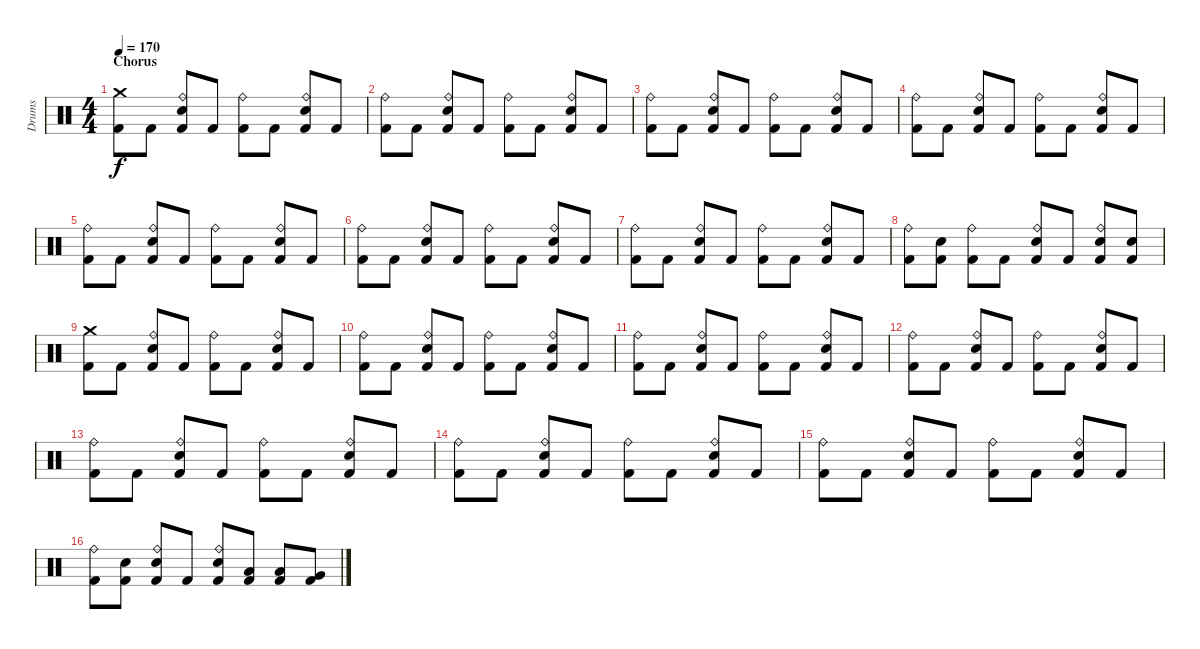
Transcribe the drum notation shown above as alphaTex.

\track ("Drums" "Drums") {instrument percussion}
\staff {score}
\articulation defaults
\ts (4 4)
\section ("" "Chorus")
\tempo 170
\clef neutral
\ks c
("Crash medium (hit)" "Kick (hit) 2").8{dy f} "Kick (hit) 2".8 ("Ride (bell)" "Electric Snare (hit)" "Kick (hit) 2").8 "Kick (hit) 2".8 ("Ride (bell)" "Kick (hit) 2").8 "Kick (hit) 2".8 ("Ride (bell)" "Electric Snare (hit)" "Kick (hit) 2").8 "Kick (hit) 2".8 |
("Ride (bell)" "Kick (hit) 2").8 "Kick (hit) 2".8 ("Ride (bell)" "Electric Snare (hit)" "Kick (hit) 2").8 "Kick (hit) 2".8 ("Ride (bell)" "Kick (hit) 2").8 "Kick (hit) 2".8 ("Ride (bell)" "Electric Snare (hit)" "Kick (hit) 2").8 "Kick (hit) 2".8 |
("Ride (bell)" "Kick (hit) 2").8 "Kick (hit) 2".8 ("Ride (bell)" "Electric Snare (hit)" "Kick (hit) 2").8 "Kick (hit) 2".8 ("Ride (bell)" "Kick (hit) 2").8 "Kick (hit) 2".8 ("Ride (bell)" "Electric Snare (hit)" "Kick (hit) 2").8 "Kick (hit) 2".8 |
("Ride (bell)" "Kick (hit) 2").8 "Kick (hit) 2".8 ("Ride (bell)" "Electric Snare (hit)" "Kick (hit) 2").8 "Kick (hit) 2".8 ("Ride (bell)" "Kick (hit) 2").8 "Kick (hit) 2".8 ("Ride (bell)" "Electric Snare (hit)" "Kick (hit) 2").8 "Kick (hit) 2".8 |
("Ride (bell)" "Kick (hit) 2").8 "Kick (hit) 2".8 ("Ride (bell)" "Electric Snare (hit)" "Kick (hit) 2").8 "Kick (hit) 2".8 ("Ride (bell)" "Kick (hit) 2").8 "Kick (hit) 2".8 ("Ride (bell)" "Electric Snare (hit)" "Kick (hit) 2").8 "Kick (hit) 2".8 |
("Ride (bell)" "Kick (hit) 2").8 "Kick (hit) 2".8 ("Ride (bell)" "Electric Snare (hit)" "Kick (hit) 2").8 "Kick (hit) 2".8 ("Ride (bell)" "Kick (hit) 2").8 "Kick (hit) 2".8 ("Ride (bell)" "Electric Snare (hit)" "Kick (hit) 2").8 "Kick (hit) 2".8 |
("Ride (bell)" "Kick (hit) 2").8 "Kick (hit) 2".8 ("Ride (bell)" "Electric Snare (hit)" "Kick (hit) 2").8 "Kick (hit) 2".8 ("Ride (bell)" "Kick (hit) 2").8 "Kick (hit) 2".8 ("Ride (bell)" "Electric Snare (hit)" "Kick (hit) 2").8 "Kick (hit) 2".8 |
("Ride (bell)" "Kick (hit) 2").8 ("Electric Snare (hit)" "Kick (hit) 2").8 ("Ride (bell)" "Kick (hit) 2").8 "Kick (hit) 2".8 ("Ride (bell)" "Electric Snare (hit)" "Kick (hit) 2").8 "Kick (hit) 2".8 ("Ride (bell)" "Electric Snare (hit)" "Kick (hit) 2").8 ("Electric Snare (hit)" "Kick (hit) 2").8 |
("Crash medium (hit)" "Kick (hit) 2").8 "Kick (hit) 2".8 ("Ride (bell)" "Electric Snare (hit)" "Kick (hit) 2").8 "Kick (hit) 2".8 ("Ride (bell)" "Kick (hit) 2").8 "Kick (hit) 2".8 ("Ride (bell)" "Electric Snare (hit)" "Kick (hit) 2").8 "Kick (hit) 2".8 |
("Ride (bell)" "Kick (hit) 2").8 "Kick (hit) 2".8 ("Ride (bell)" "Electric Snare (hit)" "Kick (hit) 2").8 "Kick (hit) 2".8 ("Ride (bell)" "Kick (hit) 2").8 "Kick (hit) 2".8 ("Ride (bell)" "Electric Snare (hit)" "Kick (hit) 2").8 "Kick (hit) 2".8 |
("Ride (bell)" "Kick (hit) 2").8 "Kick (hit) 2".8 ("Ride (bell)" "Electric Snare (hit)" "Kick (hit) 2").8 "Kick (hit) 2".8 ("Ride (bell)" "Kick (hit) 2").8 "Kick (hit) 2".8 ("Ride (bell)" "Electric Snare (hit)" "Kick (hit) 2").8 "Kick (hit) 2".8 |
("Ride (bell)" "Kick (hit) 2").8 "Kick (hit) 2".8 ("Ride (bell)" "Electric Snare (hit)" "Kick (hit) 2").8 "Kick (hit) 2".8 ("Ride (bell)" "Kick (hit) 2").8 "Kick (hit) 2".8 ("Ride (bell)" "Electric Snare (hit)" "Kick (hit) 2").8 "Kick (hit) 2".8 |
("Ride (bell)" "Kick (hit) 2").8 "Kick (hit) 2".8 ("Ride (bell)" "Electric Snare (hit)" "Kick (hit) 2").8 "Kick (hit) 2".8 ("Ride (bell)" "Kick (hit) 2").8 "Kick (hit) 2".8 ("Ride (bell)" "Electric Snare (hit)" "Kick (hit) 2").8 "Kick (hit) 2".8 |
("Ride (bell)" "Kick (hit) 2").8 "Kick (hit) 2".8 ("Ride (bell)" "Electric Snare (hit)" "Kick (hit) 2").8 "Kick (hit) 2".8 ("Ride (bell)" "Kick (hit) 2").8 "Kick (hit) 2".8 ("Ride (bell)" "Electric Snare (hit)" "Kick (hit) 2").8 "Kick (hit) 2".8 |
("Ride (bell)" "Kick (hit) 2").8 "Kick (hit) 2".8 ("Ride (bell)" "Electric Snare (hit)" "Kick (hit) 2").8 "Kick (hit) 2".8 ("Ride (bell)" "Kick (hit) 2").8 "Kick (hit) 2".8 ("Ride (bell)" "Electric Snare (hit)" "Kick (hit) 2").8 "Kick (hit) 2".8 |
("Ride (bell)" "Kick (hit) 2").8 ("Electric Snare (hit)" "Kick (hit) 2").8 ("Ride (bell)" "Electric Snare (hit)" "Kick (hit) 2").8 "Kick (hit) 2".8 ("Ride (bell)" "Electric Snare (hit)" "Kick (hit) 2").8 ("Low Tom (hit)" "Kick (hit) 2").8 ("Low Tom (hit)" "Kick (hit) 2").8 ("Very Low Tom (hit)" "Kick (hit) 2").8
